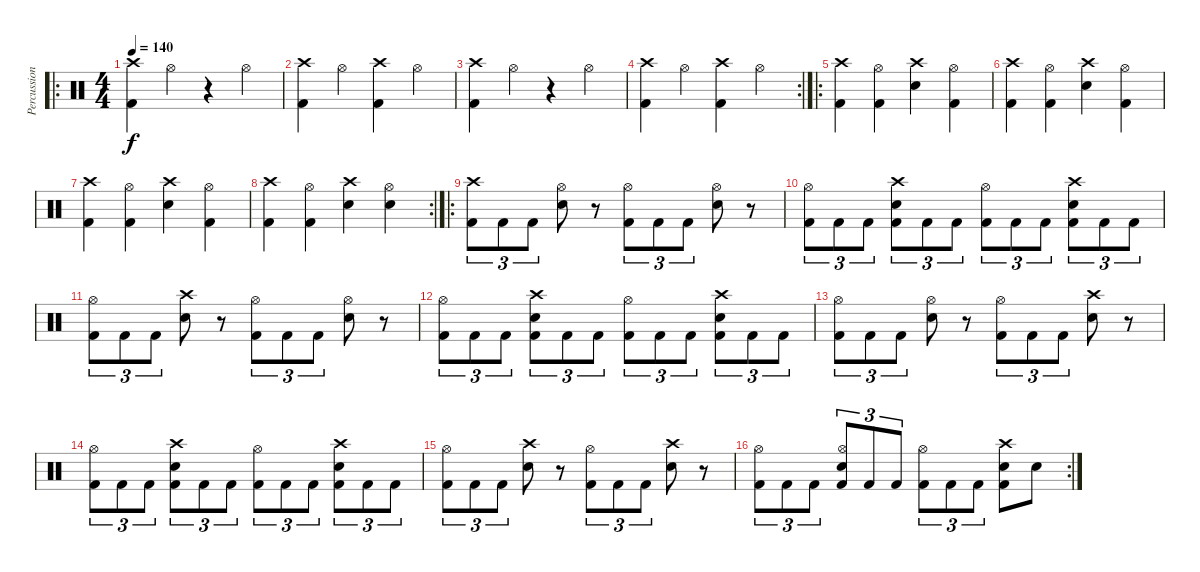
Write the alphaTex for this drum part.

\track ("Percussion" "Percussion") {instrument percussion}
\staff {score}
\articulation defaults
\ro
\ts (4 4)
\tempo 140
\clef neutral
\ks c
("Crash high (hit)" "Kick (hit) 2").4{dy f} "Hi-Hat (open)".4 r.4 "Hi-Hat (open)".4 |
("Crash high (hit)" "Kick (hit) 2").4 "Hi-Hat (open)".4 ("Crash high (hit)" "Kick (hit) 2").4 "Hi-Hat (open)".4 |
("Crash high (hit)" "Kick (hit) 2").4 "Hi-Hat (open)".4 r.4 "Hi-Hat (open)".4 |
\rc 2
("Crash high (hit)" "Kick (hit) 2").4 "Hi-Hat (open)".4 ("Crash high (hit)" "Kick (hit) 2").4 "Hi-Hat (open)".4 |
\ro
("Crash high (hit)" "Kick (hit) 2").4 ("Hi-Hat (open)" "Kick (hit) 2").4 ("Crash high (hit)" "Snare (hit) 2").4 ("Hi-Hat (open)" "Kick (hit) 2").4 |
("Crash high (hit)" "Kick (hit) 2").4 ("Hi-Hat (open)" "Kick (hit) 2").4 ("Crash high (hit)" "Snare (hit) 2").4 ("Hi-Hat (open)" "Kick (hit) 2").4 |
("Crash high (hit)" "Kick (hit) 2").4 ("Hi-Hat (open)" "Kick (hit) 2").4 ("Crash high (hit)" "Snare (hit) 2").4 ("Hi-Hat (open)" "Kick (hit) 2").4 |
\rc 2
("Crash high (hit)" "Kick (hit) 2").4 ("Hi-Hat (open)" "Kick (hit) 2").4 ("Crash high (hit)" "Snare (hit) 2").4 ("Hi-Hat (open)" "Snare (hit) 2").4 |
\ro
("Crash high (hit)" "Kick (hit) 2").8{tu (3 2)} "Kick (hit) 2".8{tu (3 2)} "Kick (hit) 2".8{tu (3 2)} ("Hi-Hat (open)" "Snare (hit) 2").8 r.8 ("Hi-Hat (open)" "Kick (hit) 2").8{tu (3 2)} "Kick (hit) 2".8{tu (3 2)} "Kick (hit) 2".8{tu (3 2)} ("Hi-Hat (open)" "Snare (hit) 2").8 r.8 |
("Hi-Hat (open)" "Kick (hit) 2").8{tu (3 2)} "Kick (hit) 2".8{tu (3 2)} "Kick (hit) 2".8{tu (3 2)} ("Crash high (hit)" "Snare (hit) 2" "Kick (hit) 2").8{tu (3 2)} "Kick (hit) 2".8{tu (3 2)} "Kick (hit) 2".8{tu (3 2)} ("Hi-Hat (open)" "Kick (hit) 2").8{tu (3 2)} "Kick (hit) 2".8{tu (3 2)} "Kick (hit) 2".8{tu (3 2)} ("Crash high (hit)" "Snare (hit) 2" "Kick (hit) 2").8{tu (3 2)} "Kick (hit) 2".8{tu (3 2)} "Kick (hit) 2".8{tu (3 2)} |
("Hi-Hat (open)" "Kick (hit) 2").8{tu (3 2)} "Kick (hit) 2".8{tu (3 2)} "Kick (hit) 2".8{tu (3 2)} ("Crash high (hit)" "Snare (hit) 2").8 r.8 ("Hi-Hat (open)" "Kick (hit) 2").8{tu (3 2)} "Kick (hit) 2".8{tu (3 2)} "Kick (hit) 2".8{tu (3 2)} ("Hi-Hat (open)" "Snare (hit) 2").8 r.8 |
("Hi-Hat (open)" "Kick (hit) 2").8{tu (3 2)} "Kick (hit) 2".8{tu (3 2)} "Kick (hit) 2".8{tu (3 2)} ("Crash high (hit)" "Snare (hit) 2" "Kick (hit) 2").8{tu (3 2)} "Kick (hit) 2".8{tu (3 2)} "Kick (hit) 2".8{tu (3 2)} ("Hi-Hat (open)" "Kick (hit) 2").8{tu (3 2)} "Kick (hit) 2".8{tu (3 2)} "Kick (hit) 2".8{tu (3 2)} ("Crash high (hit)" "Snare (hit) 2" "Kick (hit) 2").8{tu (3 2)} "Kick (hit) 2".8{tu (3 2)} "Kick (hit) 2".8{tu (3 2)} |
("Hi-Hat (open)" "Kick (hit) 2").8{tu (3 2)} "Kick (hit) 2".8{tu (3 2)} "Kick (hit) 2".8{tu (3 2)} ("Hi-Hat (open)" "Snare (hit) 2").8 r.8 ("Hi-Hat (open)" "Kick (hit) 2").8{tu (3 2)} "Kick (hit) 2".8{tu (3 2)} "Kick (hit) 2".8{tu (3 2)} ("Crash high (hit)" "Snare (hit) 2").8 r.8 |
("Hi-Hat (open)" "Kick (hit) 2").8{tu (3 2)} "Kick (hit) 2".8{tu (3 2)} "Kick (hit) 2".8{tu (3 2)} ("Crash high (hit)" "Snare (hit) 2" "Kick (hit) 2").8{tu (3 2)} "Kick (hit) 2".8{tu (3 2)} "Kick (hit) 2".8{tu (3 2)} ("Hi-Hat (open)" "Kick (hit) 2").8{tu (3 2)} "Kick (hit) 2".8{tu (3 2)} "Kick (hit) 2".8{tu (3 2)} ("Crash high (hit)" "Snare (hit) 2" "Kick (hit) 2").8{tu (3 2)} "Kick (hit) 2".8{tu (3 2)} "Kick (hit) 2".8{tu (3 2)} |
("Hi-Hat (open)" "Kick (hit) 2").8{tu (3 2)} "Kick (hit) 2".8{tu (3 2)} "Kick (hit) 2".8{tu (3 2)} ("Crash high (hit)" "Snare (hit) 2").8 r.8 ("Hi-Hat (open)" "Kick (hit) 2").8{tu (3 2)} "Kick (hit) 2".8{tu (3 2)} "Kick (hit) 2".8{tu (3 2)} ("Crash high (hit)" "Snare (hit) 2").8 r.8 |
\rc 2
("Hi-Hat (open)" "Kick (hit) 2").8{tu (3 2)} "Kick (hit) 2".8{tu (3 2)} "Kick (hit) 2".8{tu (3 2)} ("Hi-Hat (open)" "Snare (hit) 2" "Kick (hit) 2").8{tu (3 2)} "Kick (hit) 2".8{tu (3 2)} "Kick (hit) 2".8{tu (3 2)} ("Hi-Hat (open)" "Kick (hit) 2").8{tu (3 2)} "Kick (hit) 2".8{tu (3 2)} "Kick (hit) 2".8{tu (3 2)} ("Crash high (hit)" "Snare (hit) 2" "Kick (hit) 2").8 "Snare (hit) 2".8
